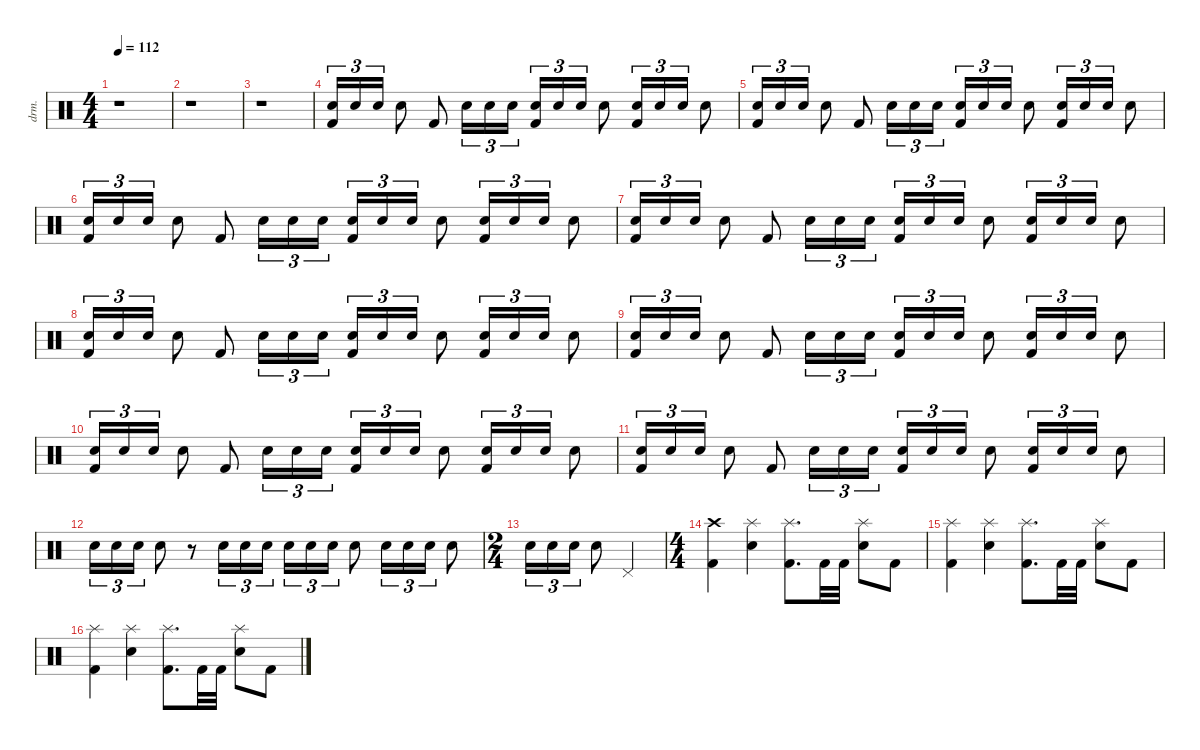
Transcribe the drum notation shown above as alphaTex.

\defaultSystemsLayout 4
\hideDynamics
\bracketExtendMode nobrackets
\otherSystemsTrackNameOrientation horizontal
\track ("Mike Portnoy" "drm.") {instrument percussion}
\staff {score}
\articulation defaults
\ts (4 4)
\beaming (8 2 2 2 2)
\tempo 112
\clef neutral
\ks c
r.1{dy f beam Down} |
r.1{beam Down} |
r.1{beam Down} |
("Kick (hit) 2" "Snare (hit) 2").16{tu (3 2) beam Up} "Snare (hit) 2".16{tu (3 2) beam Up} "Snare (hit) 2".16{tu (3 2) beam Up} "Snare (hit) 2".8{beam Down} "Kick (hit) 2".8{beam Up} "Snare (hit) 2".16{tu (3 2) beam Down} "Snare (hit) 2".16{tu (3 2) beam Down} "Snare (hit) 2".16{tu (3 2) beam Down} ("Kick (hit) 2" "Snare (hit) 2").16{tu (3 2) beam Up} "Snare (hit) 2".16{tu (3 2) beam Up} "Snare (hit) 2".16{tu (3 2) beam Up} "Snare (hit) 2".8{beam Down} ("Kick (hit) 2" "Snare (hit) 2").16{tu (3 2) beam Up} "Snare (hit) 2".16{tu (3 2) beam Up} "Snare (hit) 2".16{tu (3 2) beam Up} "Snare (hit) 2".8{beam Down} |
("Kick (hit) 2" "Snare (hit) 2").16{tu (3 2) beam Up} "Snare (hit) 2".16{tu (3 2) beam Up} "Snare (hit) 2".16{tu (3 2) beam Up} "Snare (hit) 2".8{beam Down} "Kick (hit) 2".8{beam Up} "Snare (hit) 2".16{tu (3 2) beam Down} "Snare (hit) 2".16{tu (3 2) beam Down} "Snare (hit) 2".16{tu (3 2) beam Down} ("Kick (hit) 2" "Snare (hit) 2").16{tu (3 2) beam Up} "Snare (hit) 2".16{tu (3 2) beam Up} "Snare (hit) 2".16{tu (3 2) beam Up} "Snare (hit) 2".8{beam Down} ("Kick (hit) 2" "Snare (hit) 2").16{tu (3 2) beam Up} "Snare (hit) 2".16{tu (3 2) beam Up} "Snare (hit) 2".16{tu (3 2) beam Up} "Snare (hit) 2".8{beam Down} |
("Kick (hit) 2" "Snare (hit) 2").16{tu (3 2) beam Up} "Snare (hit) 2".16{tu (3 2) beam Up} "Snare (hit) 2".16{tu (3 2) beam Up} "Snare (hit) 2".8{beam Down} "Kick (hit) 2".8{beam Up} "Snare (hit) 2".16{tu (3 2) beam Down} "Snare (hit) 2".16{tu (3 2) beam Down} "Snare (hit) 2".16{tu (3 2) beam Down} ("Kick (hit) 2" "Snare (hit) 2").16{tu (3 2) beam Up} "Snare (hit) 2".16{tu (3 2) beam Up} "Snare (hit) 2".16{tu (3 2) beam Up} "Snare (hit) 2".8{beam Down} ("Kick (hit) 2" "Snare (hit) 2").16{tu (3 2) beam Up} "Snare (hit) 2".16{tu (3 2) beam Up} "Snare (hit) 2".16{tu (3 2) beam Up} "Snare (hit) 2".8{beam Down} |
("Kick (hit) 2" "Snare (hit) 2").16{tu (3 2) beam Up} "Snare (hit) 2".16{tu (3 2) beam Up} "Snare (hit) 2".16{tu (3 2) beam Up} "Snare (hit) 2".8{beam Down} "Kick (hit) 2".8{beam Up} "Snare (hit) 2".16{tu (3 2) beam Down} "Snare (hit) 2".16{tu (3 2) beam Down} "Snare (hit) 2".16{tu (3 2) beam Down} ("Kick (hit) 2" "Snare (hit) 2").16{tu (3 2) beam Up} "Snare (hit) 2".16{tu (3 2) beam Up} "Snare (hit) 2".16{tu (3 2) beam Up} "Snare (hit) 2".8{beam Down} ("Kick (hit) 2" "Snare (hit) 2").16{tu (3 2) beam Up} "Snare (hit) 2".16{tu (3 2) beam Up} "Snare (hit) 2".16{tu (3 2) beam Up} "Snare (hit) 2".8{beam Down} |
("Kick (hit) 2" "Snare (hit) 2").16{tu (3 2) beam Up} "Snare (hit) 2".16{tu (3 2) beam Up} "Snare (hit) 2".16{tu (3 2) beam Up} "Snare (hit) 2".8{beam Down} "Kick (hit) 2".8{beam Up} "Snare (hit) 2".16{tu (3 2) beam Down} "Snare (hit) 2".16{tu (3 2) beam Down} "Snare (hit) 2".16{tu (3 2) beam Down} ("Kick (hit) 2" "Snare (hit) 2").16{tu (3 2) beam Up} "Snare (hit) 2".16{tu (3 2) beam Up} "Snare (hit) 2".16{tu (3 2) beam Up} "Snare (hit) 2".8{beam Down} ("Kick (hit) 2" "Snare (hit) 2").16{tu (3 2) beam Up} "Snare (hit) 2".16{tu (3 2) beam Up} "Snare (hit) 2".16{tu (3 2) beam Up} "Snare (hit) 2".8{beam Down} |
("Kick (hit) 2" "Snare (hit) 2").16{tu (3 2) beam Up} "Snare (hit) 2".16{tu (3 2) beam Up} "Snare (hit) 2".16{tu (3 2) beam Up} "Snare (hit) 2".8{beam Down} "Kick (hit) 2".8{beam Up} "Snare (hit) 2".16{tu (3 2) beam Down} "Snare (hit) 2".16{tu (3 2) beam Down} "Snare (hit) 2".16{tu (3 2) beam Down} ("Kick (hit) 2" "Snare (hit) 2").16{tu (3 2) beam Up} "Snare (hit) 2".16{tu (3 2) beam Up} "Snare (hit) 2".16{tu (3 2) beam Up} "Snare (hit) 2".8{beam Down} ("Kick (hit) 2" "Snare (hit) 2").16{tu (3 2) beam Up} "Snare (hit) 2".16{tu (3 2) beam Up} "Snare (hit) 2".16{tu (3 2) beam Up} "Snare (hit) 2".8{beam Down} |
("Kick (hit) 2" "Snare (hit) 2").16{tu (3 2) beam Up} "Snare (hit) 2".16{tu (3 2) beam Up} "Snare (hit) 2".16{tu (3 2) beam Up} "Snare (hit) 2".8{beam Down} "Kick (hit) 2".8{beam Up} "Snare (hit) 2".16{tu (3 2) beam Down} "Snare (hit) 2".16{tu (3 2) beam Down} "Snare (hit) 2".16{tu (3 2) beam Down} ("Kick (hit) 2" "Snare (hit) 2").16{tu (3 2) beam Up} "Snare (hit) 2".16{tu (3 2) beam Up} "Snare (hit) 2".16{tu (3 2) beam Up} "Snare (hit) 2".8{beam Down} ("Kick (hit) 2" "Snare (hit) 2").16{tu (3 2) beam Up} "Snare (hit) 2".16{tu (3 2) beam Up} "Snare (hit) 2".16{tu (3 2) beam Up} "Snare (hit) 2".8{beam Down} |
("Kick (hit) 2" "Snare (hit) 2").16{tu (3 2) beam Up} "Snare (hit) 2".16{tu (3 2) beam Up} "Snare (hit) 2".16{tu (3 2) beam Up} "Snare (hit) 2".8{beam Down} "Kick (hit) 2".8{beam Up} "Snare (hit) 2".16{tu (3 2) beam Down} "Snare (hit) 2".16{tu (3 2) beam Down} "Snare (hit) 2".16{tu (3 2) beam Down} ("Kick (hit) 2" "Snare (hit) 2").16{tu (3 2) beam Up} "Snare (hit) 2".16{tu (3 2) beam Up} "Snare (hit) 2".16{tu (3 2) beam Up} "Snare (hit) 2".8{beam Down} ("Kick (hit) 2" "Snare (hit) 2").16{tu (3 2) beam Up} "Snare (hit) 2".16{tu (3 2) beam Up} "Snare (hit) 2".16{tu (3 2) beam Up} "Snare (hit) 2".8{beam Down} |
"Snare (hit) 2".16{tu (3 2) beam Down} "Snare (hit) 2".16{tu (3 2) beam Down} "Snare (hit) 2".16{tu (3 2) beam Down} "Snare (hit) 2".8{beam Down} r.8{beam Down} "Snare (hit) 2".16{tu (3 2) beam Down} "Snare (hit) 2".16{tu (3 2) beam Down} "Snare (hit) 2".16{tu (3 2) beam Down} "Snare (hit) 2".16{tu (3 2) beam Down} "Snare (hit) 2".16{tu (3 2) beam Down} "Snare (hit) 2".16{tu (3 2) beam Down} "Snare (hit) 2".8{beam Down} "Snare (hit) 2".16{tu (3 2) beam Down} "Snare (hit) 2".16{tu (3 2) beam Down} "Snare (hit) 2".16{tu (3 2) beam Down} "Snare (hit) 2".8{beam Down} |
\ts (2 4)
\beaming (8 2 2)
"Snare (hit) 2".16{tu (3 2) beam Down} "Snare (hit) 2".16{tu (3 2) beam Down} "Snare (hit) 2".16{tu (3 2) beam Down} "Snare (hit) 2".8{beam Down} "Pedal Hi-Hat (hit)".4{beam Up} |
\ts (4 4)
\beaming (8 2 2 2 2)
("Kick (hit) 2" "Crash high (hit)").4{beam Down} ("Snare (hit) 2" "Splash (hit)").4{beam Down} ("Kick (hit) 2" "Splash (hit)").8{d beam Down} "Kick (hit) 2".32{beam Down} "Kick (hit) 2".32{beam Down} ("Snare (hit) 2" "Splash (hit)").8{beam Down} "Kick (hit) 2".8{beam Down} |
("Kick (hit) 2" "Splash (hit)").4{beam Down} ("Snare (hit) 2" "Splash (hit)").4{beam Down} ("Kick (hit) 2" "Splash (hit)").8{d beam Down} "Kick (hit) 2".32{beam Down} "Kick (hit) 2".32{beam Down} ("Snare (hit) 2" "Splash (hit)").8{beam Down} "Kick (hit) 2".8{beam Down} |
("Kick (hit) 2" "Splash (hit)").4{beam Down} ("Snare (hit) 2" "Splash (hit)").4{beam Down} ("Kick (hit) 2" "Splash (hit)").8{d beam Down} "Kick (hit) 2".32{beam Down} "Kick (hit) 2".32{beam Down} ("Snare (hit) 2" "Splash (hit)").8{beam Down} "Kick (hit) 2".8{beam Down}
